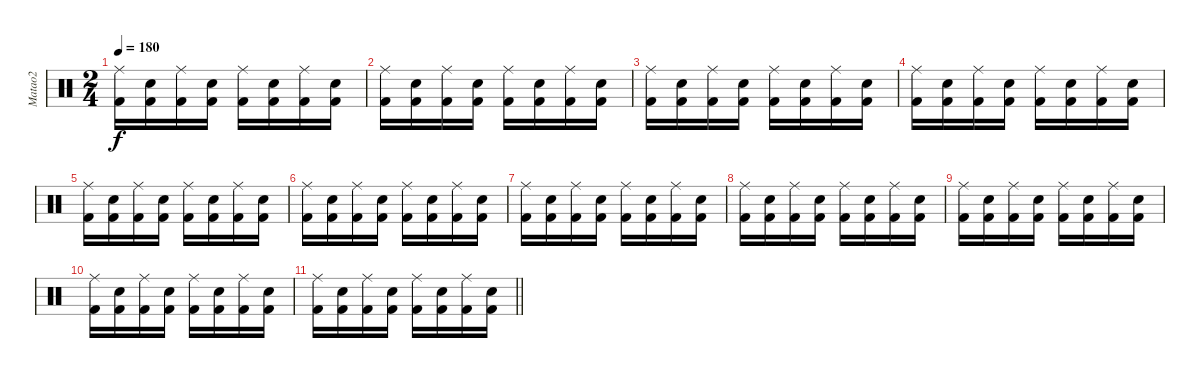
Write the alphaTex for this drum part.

\track ("Matao2" "Matao2") {instrument percussion}
\staff {score}
\articulation defaults
\ts (2 4)
\tempo 180
\clef neutral
\ks c
("Kick (hit) 2" "Ride (middle)").16{dy f} ("Kick (hit) 2" "Electric Snare (hit)").16 ("Kick (hit) 2" "Ride (middle)").16 ("Kick (hit) 2" "Electric Snare (hit)").16 ("Kick (hit) 2" "Ride (middle)").16 ("Kick (hit) 2" "Electric Snare (hit)").16 ("Kick (hit) 2" "Ride (middle)").16 ("Kick (hit) 2" "Electric Snare (hit)").16 |
("Kick (hit) 2" "Ride (middle)").16 ("Kick (hit) 2" "Electric Snare (hit)").16 ("Kick (hit) 2" "Ride (middle)").16 ("Kick (hit) 2" "Electric Snare (hit)").16 ("Kick (hit) 2" "Ride (middle)").16 ("Kick (hit) 2" "Electric Snare (hit)").16 ("Kick (hit) 2" "Ride (middle)").16 ("Kick (hit) 2" "Electric Snare (hit)").16 |
("Kick (hit) 2" "Ride (middle)").16 ("Kick (hit) 2" "Electric Snare (hit)").16 ("Kick (hit) 2" "Ride (middle)").16 ("Kick (hit) 2" "Electric Snare (hit)").16 ("Kick (hit) 2" "Ride (middle)").16 ("Kick (hit) 2" "Electric Snare (hit)").16 ("Kick (hit) 2" "Ride (middle)").16 ("Kick (hit) 2" "Electric Snare (hit)").16 |
("Kick (hit) 2" "Ride (middle)").16 ("Kick (hit) 2" "Electric Snare (hit)").16 ("Kick (hit) 2" "Ride (middle)").16 ("Kick (hit) 2" "Electric Snare (hit)").16 ("Kick (hit) 2" "Ride (middle)").16 ("Kick (hit) 2" "Electric Snare (hit)").16 ("Kick (hit) 2" "Ride (middle)").16 ("Kick (hit) 2" "Electric Snare (hit)").16 |
("Kick (hit) 2" "Ride (middle)").16 ("Kick (hit) 2" "Electric Snare (hit)").16 ("Kick (hit) 2" "Ride (middle)").16 ("Kick (hit) 2" "Electric Snare (hit)").16 ("Kick (hit) 2" "Ride (middle)").16 ("Kick (hit) 2" "Electric Snare (hit)").16 ("Kick (hit) 2" "Ride (middle)").16 ("Kick (hit) 2" "Electric Snare (hit)").16 |
("Kick (hit) 2" "Ride (middle)").16 ("Kick (hit) 2" "Electric Snare (hit)").16 ("Kick (hit) 2" "Ride (middle)").16 ("Kick (hit) 2" "Electric Snare (hit)").16 ("Kick (hit) 2" "Ride (middle)").16 ("Kick (hit) 2" "Electric Snare (hit)").16 ("Kick (hit) 2" "Ride (middle)").16 ("Kick (hit) 2" "Electric Snare (hit)").16 |
("Kick (hit) 2" "Ride (middle)").16 ("Kick (hit) 2" "Electric Snare (hit)").16 ("Kick (hit) 2" "Ride (middle)").16 ("Kick (hit) 2" "Electric Snare (hit)").16 ("Kick (hit) 2" "Ride (middle)").16 ("Kick (hit) 2" "Electric Snare (hit)").16 ("Kick (hit) 2" "Ride (middle)").16 ("Kick (hit) 2" "Electric Snare (hit)").16 |
("Kick (hit) 2" "Ride (middle)").16 ("Kick (hit) 2" "Electric Snare (hit)").16 ("Kick (hit) 2" "Ride (middle)").16 ("Kick (hit) 2" "Electric Snare (hit)").16 ("Kick (hit) 2" "Ride (middle)").16 ("Kick (hit) 2" "Electric Snare (hit)").16 ("Kick (hit) 2" "Ride (middle)").16 ("Kick (hit) 2" "Electric Snare (hit)").16 |
("Kick (hit) 2" "Ride (middle)").16 ("Kick (hit) 2" "Electric Snare (hit)").16 ("Kick (hit) 2" "Ride (middle)").16 ("Kick (hit) 2" "Electric Snare (hit)").16 ("Kick (hit) 2" "Ride (middle)").16 ("Kick (hit) 2" "Electric Snare (hit)").16 ("Kick (hit) 2" "Ride (middle)").16 ("Kick (hit) 2" "Electric Snare (hit)").16 |
("Kick (hit) 2" "Ride (middle)").16 ("Kick (hit) 2" "Electric Snare (hit)").16 ("Kick (hit) 2" "Ride (middle)").16 ("Kick (hit) 2" "Electric Snare (hit)").16 ("Kick (hit) 2" "Ride (middle)").16 ("Kick (hit) 2" "Electric Snare (hit)").16 ("Kick (hit) 2" "Ride (middle)").16 ("Kick (hit) 2" "Electric Snare (hit)").16 |
\barLineRight lightlight
("Kick (hit) 2" "Ride (middle)").16 ("Kick (hit) 2" "Electric Snare (hit)").16 ("Kick (hit) 2" "Ride (middle)").16 ("Kick (hit) 2" "Electric Snare (hit)").16 ("Kick (hit) 2" "Ride (middle)").16 ("Kick (hit) 2" "Electric Snare (hit)").16 ("Kick (hit) 2" "Ride (middle)").16 ("Kick (hit) 2" "Electric Snare (hit)").16
